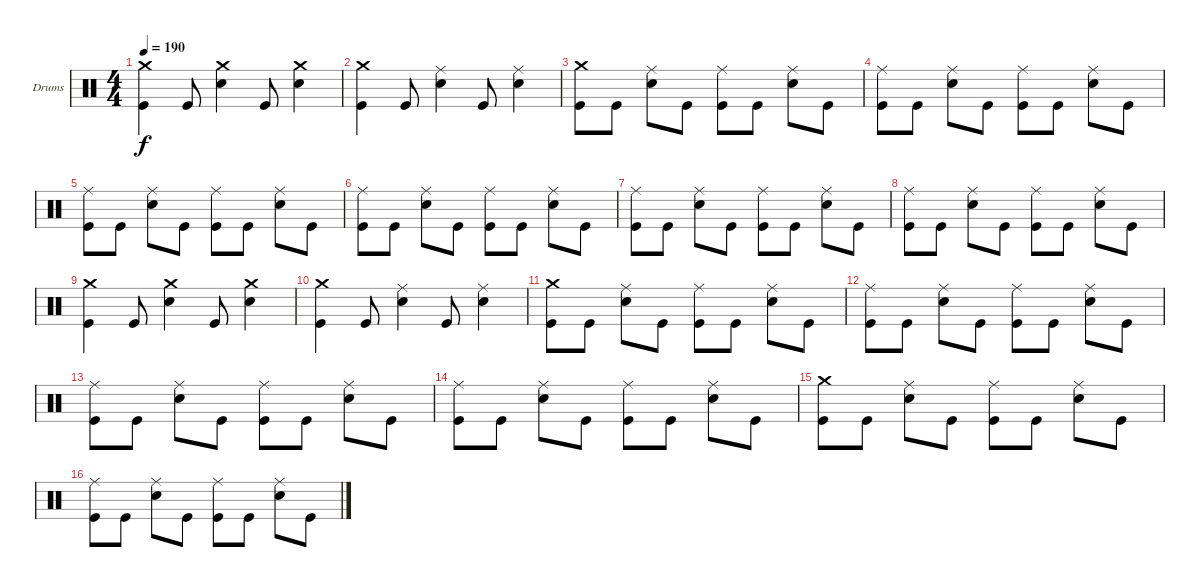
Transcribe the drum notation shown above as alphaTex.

\bracketExtendMode groupsimilarinstruments
\firstSystemTrackNameOrientation horizontal
\otherSystemsTrackNameOrientation horizontal
\track ("Максим Удалов" "Drums") {instrument percussion}
\staff {score}
\articulation defaults
\ts (4 4)
\tempo 190
\clef neutral
\ks c
("Kick (hit)" "Crash medium (hit)").4{dy f} "Kick (hit)".8 ("Snare (hit) 2" "Crash medium (hit)").4 "Kick (hit)".8 ("Snare (hit) 2" "Crash medium (hit)").4 |
("Kick (hit)" "Crash medium (hit)").4 "Kick (hit)".8 ("Snare (hit) 2" "Ride (middle)").4 "Kick (hit)".8 ("Snare (hit) 2" "Ride (middle)").4 |
("Kick (hit)" "Crash medium (hit)").8 "Kick (hit)".8 ("Snare (hit) 2" "Ride (middle)").8 "Kick (hit)".8 ("Kick (hit)" "Ride (middle)").8 "Kick (hit)".8 ("Snare (hit) 2" "Ride (middle)").8 "Kick (hit)".8 |
("Kick (hit)" "Ride (middle)").8 "Kick (hit)".8 ("Snare (hit) 2" "Ride (middle)").8 "Kick (hit)".8 ("Kick (hit)" "Ride (middle)").8 "Kick (hit)".8 ("Snare (hit) 2" "Ride (middle)").8 "Kick (hit)".8 |
("Kick (hit)" "Ride (middle)").8 "Kick (hit)".8 ("Snare (hit) 2" "Ride (middle)").8 "Kick (hit)".8 ("Kick (hit)" "Ride (middle)").8 "Kick (hit)".8 ("Snare (hit) 2" "Ride (middle)").8 "Kick (hit)".8 |
("Kick (hit)" "Ride (middle)").8 "Kick (hit)".8 ("Snare (hit) 2" "Ride (middle)").8 "Kick (hit)".8 ("Kick (hit)" "Ride (middle)").8 "Kick (hit)".8 ("Snare (hit) 2" "Ride (middle)").8 "Kick (hit)".8 |
("Kick (hit)" "Ride (middle)").8 "Kick (hit)".8 ("Snare (hit) 2" "Ride (middle)").8 "Kick (hit)".8 ("Kick (hit)" "Ride (middle)").8 "Kick (hit)".8 ("Snare (hit) 2" "Ride (middle)").8 "Kick (hit)".8 |
("Kick (hit)" "Ride (middle)").8 "Kick (hit)".8 ("Snare (hit) 2" "Ride (middle)").8 "Kick (hit)".8 ("Kick (hit)" "Ride (middle)").8 "Kick (hit)".8 ("Snare (hit) 2" "Ride (middle)").8 "Kick (hit)".8 |
("Kick (hit)" "Crash medium (hit)").4 "Kick (hit)".8 ("Snare (hit) 2" "Crash medium (hit)").4 "Kick (hit)".8 ("Snare (hit) 2" "Crash medium (hit)").4 |
("Kick (hit)" "Crash medium (hit)").4 "Kick (hit)".8 ("Snare (hit) 2" "Ride (middle)").4 "Kick (hit)".8 ("Snare (hit) 2" "Ride (middle)").4 |
("Kick (hit)" "Crash medium (hit)").8 "Kick (hit)".8 ("Snare (hit) 2" "Ride (middle)").8 "Kick (hit)".8 ("Kick (hit)" "Ride (middle)").8 "Kick (hit)".8 ("Snare (hit) 2" "Ride (middle)").8 "Kick (hit)".8 |
("Kick (hit)" "Ride (middle)").8 "Kick (hit)".8 ("Snare (hit) 2" "Ride (middle)").8 "Kick (hit)".8 ("Kick (hit)" "Ride (middle)").8 "Kick (hit)".8 ("Snare (hit) 2" "Ride (middle)").8 "Kick (hit)".8 |
("Kick (hit)" "Ride (middle)").8 "Kick (hit)".8 ("Snare (hit) 2" "Ride (middle)").8 "Kick (hit)".8 ("Kick (hit)" "Ride (middle)").8 "Kick (hit)".8 ("Snare (hit) 2" "Ride (middle)").8 "Kick (hit)".8 |
("Kick (hit)" "Ride (middle)").8 "Kick (hit)".8 ("Snare (hit) 2" "Ride (middle)").8 "Kick (hit)".8 ("Kick (hit)" "Ride (middle)").8 "Kick (hit)".8 ("Snare (hit) 2" "Ride (middle)").8 "Kick (hit)".8 |
("Kick (hit)" "Crash medium (hit)").8 "Kick (hit)".8 ("Snare (hit) 2" "Ride (middle)").8 "Kick (hit)".8 ("Kick (hit)" "Ride (middle)").8 "Kick (hit)".8 ("Snare (hit) 2" "Ride (middle)").8 "Kick (hit)".8 |
("Kick (hit)" "Ride (middle)").8 "Kick (hit)".8 ("Snare (hit) 2" "Ride (middle)").8 "Kick (hit)".8 ("Kick (hit)" "Ride (middle)").8 "Kick (hit)".8 ("Snare (hit) 2" "Ride (middle)").8 "Kick (hit)".8
